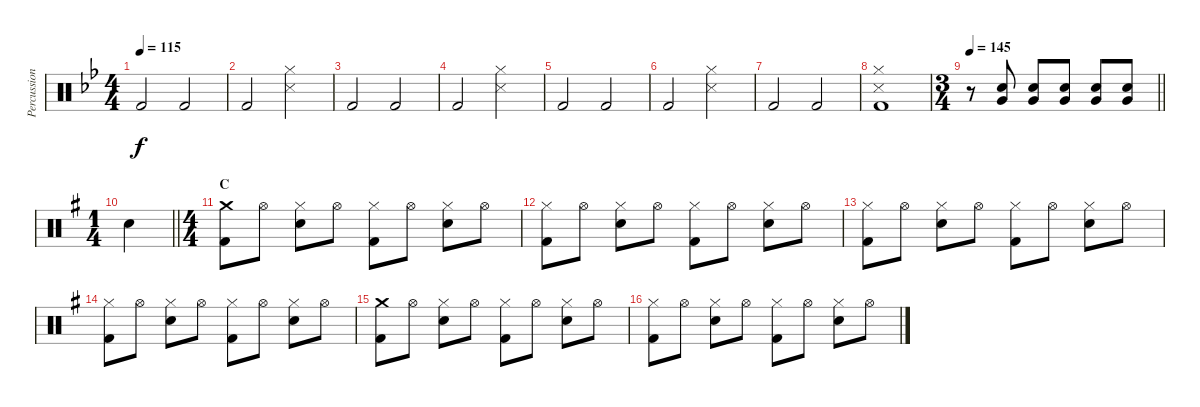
\track ("Percussion" "Percussion") {instrument percussion}
\staff {score}
\articulation defaults
\ts (4 4)
\tempo 115
\clef neutral
\ks bb "Kick (hit) 2".2{dy f} "Kick (hit) 2".2
|
"Kick (hit) 2".2 ("Snare (side stick) 3" "Hi-Hat (closed)").2 |
"Kick (hit) 2".2 "Kick (hit) 2".2 |
"Kick (hit) 2".2 ("Snare (side stick) 3" "Hi-Hat (closed)").2 |
"Kick (hit) 2".2 "Kick (hit) 2".2 |
"Kick (hit) 2".2 ("Snare (side stick) 3" "Hi-Hat (closed)").2 |
"Kick (hit) 2".2 "Kick (hit) 2".2 |
("Snare (side stick) 3" "Hi-Hat (closed)" "Kick (hit) 2").1 |
\ts (3 4)
\tempo 145
\barLineRight lightlight
r.8 ("Very Low Tom (hit)" "Snare (hit) 2").8 ("Very Low Tom (hit)" "Snare (hit) 2").8 ("Very Low Tom (hit)" "Snare (hit) 2").8 ("Very Low Tom (hit)" "Snare (hit) 2").8 ("Very Low Tom (hit)" "Snare (hit) 2").8 |
\ts (1 4)
\barLineRight lightlight
\ks g "Snare (hit) 2".4
|
\ts (4 4)
\section ("" "C")
("Crash medium (hit)" "Kick (hit) 2").8 "Hi-Hat (open)".8 ("Hi-Hat (closed)" "Snare (hit) 2").8 "Hi-Hat (open)".8 ("Hi-Hat (closed)" "Kick (hit) 2").8 "Hi-Hat (open)".8 ("Hi-Hat (closed)" "Snare (hit) 2").8 "Hi-Hat (open)".8 |
("Hi-Hat (closed)" "Kick (hit) 2").8 "Hi-Hat (open)".8 ("Hi-Hat (closed)" "Snare (hit) 2").8 "Hi-Hat (open)".8 ("Hi-Hat (closed)" "Kick (hit) 2").8 "Hi-Hat (open)".8 ("Hi-Hat (closed)" "Snare (hit) 2").8 "Hi-Hat (open)".8 |
("Hi-Hat (closed)" "Kick (hit) 2").8 "Hi-Hat (open)".8 ("Hi-Hat (closed)" "Snare (hit) 2").8 "Hi-Hat (open)".8 ("Hi-Hat (closed)" "Kick (hit) 2").8 "Hi-Hat (open)".8 ("Hi-Hat (closed)" "Snare (hit) 2").8 "Hi-Hat (open)".8 |
("Hi-Hat (closed)" "Kick (hit) 2").8 "Hi-Hat (open)".8 ("Hi-Hat (closed)" "Snare (hit) 2").8 "Hi-Hat (open)".8 ("Hi-Hat (closed)" "Kick (hit) 2").8 "Hi-Hat (open)".8 ("Hi-Hat (closed)" "Snare (hit) 2").8 "Hi-Hat (open)".8 |
("Crash medium (hit)" "Kick (hit) 2").8 "Hi-Hat (open)".8 ("Hi-Hat (closed)" "Snare (hit) 2").8 "Hi-Hat (open)".8 ("Hi-Hat (closed)" "Kick (hit) 2").8 "Hi-Hat (open)".8 ("Hi-Hat (closed)" "Snare (hit) 2").8 "Hi-Hat (open)".8 |
("Hi-Hat (closed)" "Kick (hit) 2").8 "Hi-Hat (open)".8 ("Hi-Hat (closed)" "Snare (hit) 2").8 "Hi-Hat (open)".8 ("Hi-Hat (closed)" "Kick (hit) 2").8 "Hi-Hat (open)".8 ("Hi-Hat (closed)" "Snare (hit) 2").8 "Hi-Hat (open)".8
